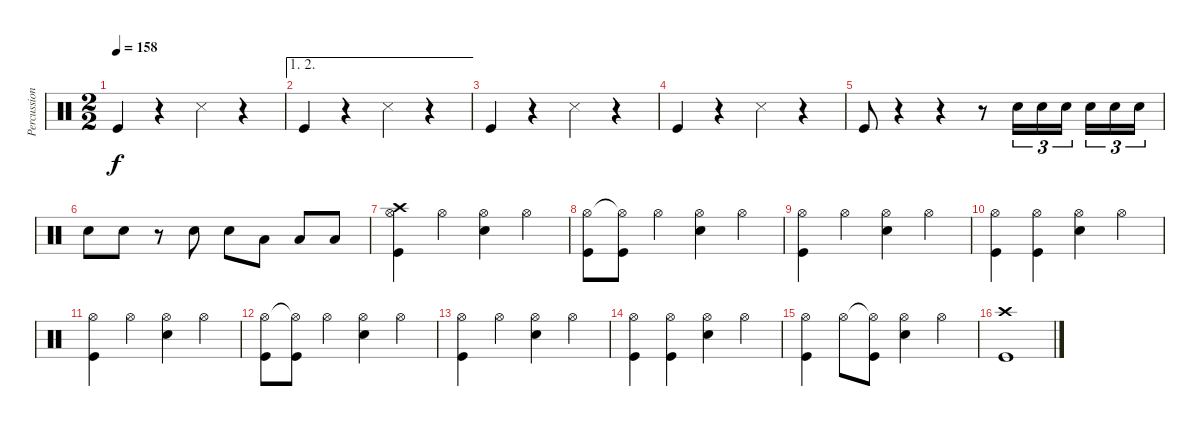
\track ("Percussion" "Percussion") {instrument percussion}
\staff {score}
\articulation defaults
\ts (2 2)
\tempo 158
\clef neutral
\ks c "Kick (hit)".4{dy f}
r.4 "Snare (side stick) 3".4 r.4 |
\ae (1 2)
"Kick (hit)".4 r.4 "Snare (side stick) 3".4 r.4 |
"Kick (hit)".4 r.4 "Snare (side stick) 3".4 r.4 |
"Kick (hit)".4 r.4 "Snare (side stick) 3".4 r.4 |
"Kick (hit)".8 r.4 r.4 r.8 "Snare (hit) 2".16{tu (3 2)} "Snare (hit) 2".16{tu (3 2)} "Snare (hit) 2".16{tu (3 2)} "Snare (hit) 2".16{tu (3 2)} "Snare (hit) 2".16{tu (3 2)} "Snare (hit) 2".16{tu (3 2)} |
"Snare (hit) 2".8 "Snare (hit) 2".8 r.8 "Snare (hit) 2".8 "Snare (hit) 2".8 "Low Tom (hit)".8 "Low Tom (hit)".8 "Low Tom (hit)".8 |
("Hi-Hat (open)" "Kick (hit)" "Crash high (hit)").4 "Hi-Hat (open)".4 ("Hi-Hat (open)" "Snare (hit) 2").4 "Hi-Hat (open)".4 |
("Hi-Hat (open)" "Kick (hit)").8 ("Hi-Hat (open)"{t} "Kick (hit)").8 "Hi-Hat (open)".4 ("Hi-Hat (open)" "Snare (hit) 2").4 "Hi-Hat (open)".4 |
("Hi-Hat (open)" "Kick (hit)").4 "Hi-Hat (open)".4 ("Hi-Hat (open)" "Snare (hit) 2").4 "Hi-Hat (open)".4 |
("Hi-Hat (open)" "Kick (hit)").4 ("Hi-Hat (open)" "Kick (hit)").4 ("Hi-Hat (open)" "Snare (hit) 2").4 "Hi-Hat (open)".4 |
("Hi-Hat (open)" "Kick (hit)").4 "Hi-Hat (open)".4 ("Hi-Hat (open)" "Snare (hit) 2").4 "Hi-Hat (open)".4 |
("Hi-Hat (open)" "Kick (hit)").8 ("Hi-Hat (open)"{t} "Kick (hit)").8 "Hi-Hat (open)".4 ("Hi-Hat (open)" "Snare (hit) 2").4 "Hi-Hat (open)".4 |
("Hi-Hat (open)" "Kick (hit)").4 "Hi-Hat (open)".4 ("Hi-Hat (open)" "Snare (hit) 2").4 "Hi-Hat (open)".4 |
("Hi-Hat (open)" "Kick (hit)").4 ("Hi-Hat (open)" "Kick (hit)").4 ("Hi-Hat (open)" "Snare (hit) 2").4 "Hi-Hat (open)".4 |
("Hi-Hat (open)" "Kick (hit)").4 "Hi-Hat (open)".8 ("Hi-Hat (open)"{t} "Kick (hit)").8 ("Hi-Hat (open)" "Snare (hit) 2").4 "Hi-Hat (open)".4 |
("Crash high (hit)" "Kick (hit)").1
